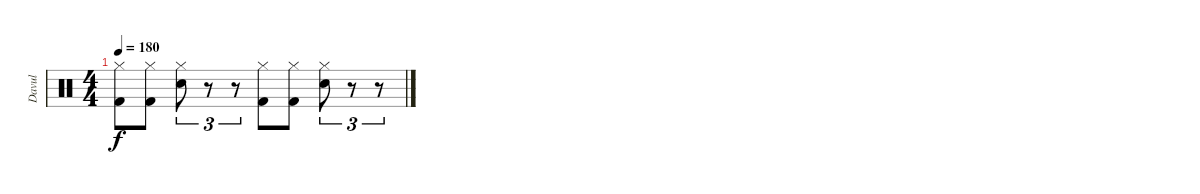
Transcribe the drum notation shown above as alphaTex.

\track ("Davul" "Davul") {instrument percussion}
\staff {score}
\articulation defaults
\ts (4 4)
\tempo 180
\clef neutral
\ks c
("Hi-Hat (closed)" "Kick (hit) 2").8{dy f} ("Hi-Hat (closed)" "Kick (hit) 2").8 ("Hi-Hat (closed)" "Snare (hit) 2").8{tu (3 2)} r.8{tu (3 2)} r.8{tu (3 2)} ("Hi-Hat (closed)" "Kick (hit) 2").8 ("Hi-Hat (closed)" "Kick (hit) 2").8 ("Hi-Hat (closed)" "Snare (hit) 2").8{tu (3 2)} r.8{tu (3 2)} r.8{tu (3 2)}
